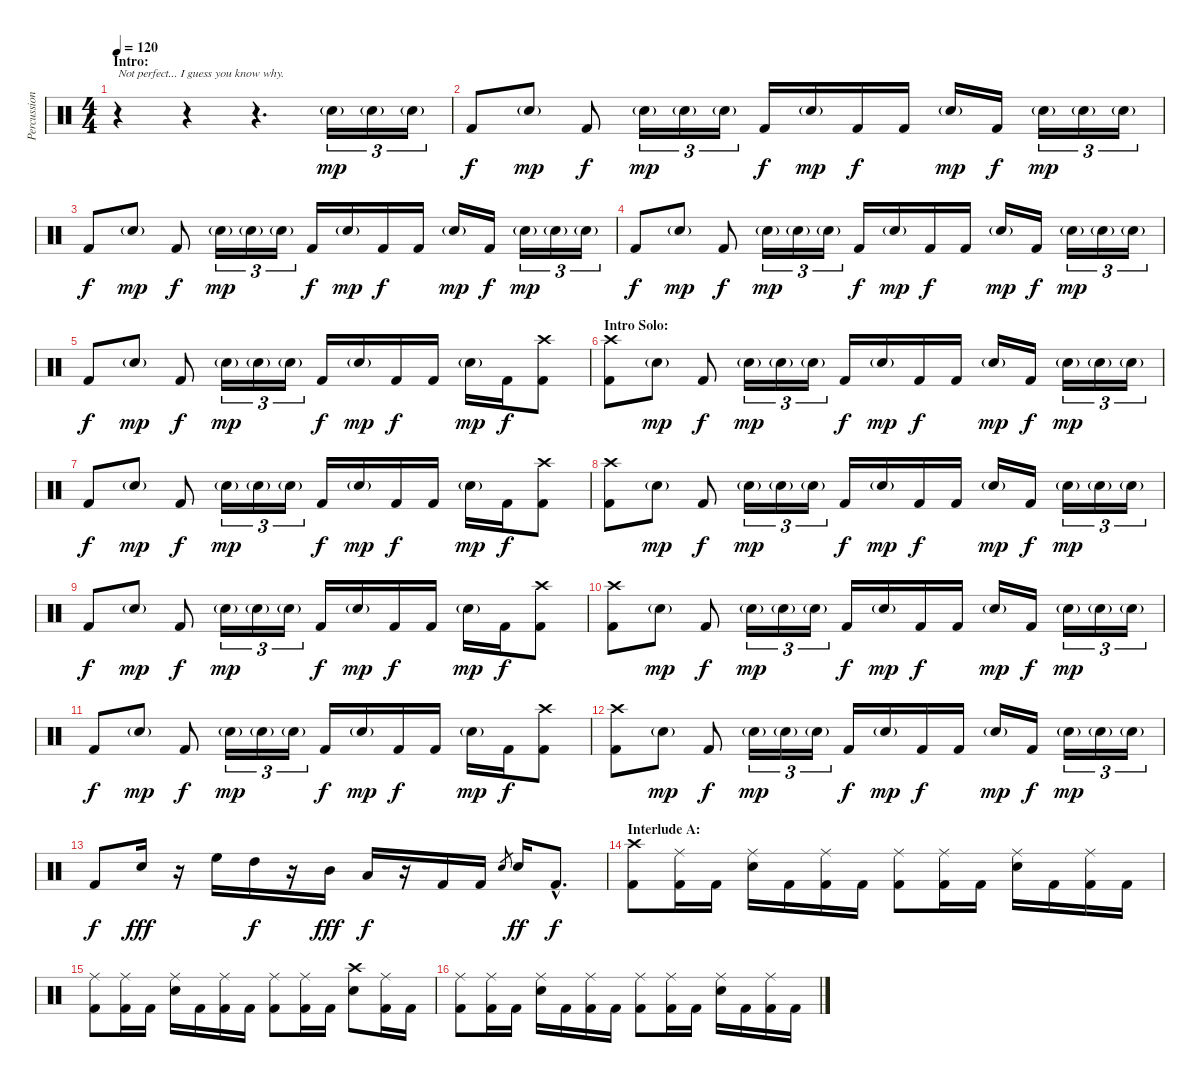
\track ("Percussion" "Percussion") {instrument percussion}
\staff {score}
\articulation defaults
\ts (4 4)
\section ("" "Intro:")
\tempo 120
\clef neutral
\ks c
r.4{txt "Not perfect... I guess you know why." dy mp} r.4 r.4{d} "Electric Snare (hit)"{g}.16{tu (3 2)} "Electric Snare (hit)"{g}.16{tu (3 2)} "Electric Snare (hit)"{g}.16{tu (3 2)} |
"Kick (hit) 2".8{dy f} "Electric Snare (hit)"{g}.8{dy mp} "Kick (hit) 2".8{dy f} "Electric Snare (hit)"{g}.16{tu (3 2) dy mp} "Electric Snare (hit)"{g}.16{tu (3 2)} "Electric Snare (hit)"{g}.16{tu (3 2)} "Kick (hit) 2".16{dy f} "Electric Snare (hit)"{g}.16{dy mp} "Kick (hit) 2".16{dy f} "Kick (hit) 2".16 "Electric Snare (hit)"{g}.16{dy mp} "Kick (hit) 2".16{dy f} "Electric Snare (hit)"{g}.16{tu (3 2) dy mp} "Electric Snare (hit)"{g}.16{tu (3 2)} "Electric Snare (hit)"{g}.16{tu (3 2)} |
"Kick (hit) 2".8{dy f} "Electric Snare (hit)"{g}.8{dy mp} "Kick (hit) 2".8{dy f} "Electric Snare (hit)"{g}.16{tu (3 2) dy mp} "Electric Snare (hit)"{g}.16{tu (3 2)} "Electric Snare (hit)"{g}.16{tu (3 2)} "Kick (hit) 2".16{dy f} "Electric Snare (hit)"{g}.16{dy mp} "Kick (hit) 2".16{dy f} "Kick (hit) 2".16 "Electric Snare (hit)"{g}.16{dy mp} "Kick (hit) 2".16{dy f} "Electric Snare (hit)"{g}.16{tu (3 2) dy mp} "Electric Snare (hit)"{g}.16{tu (3 2)} "Electric Snare (hit)"{g}.16{tu (3 2)} |
"Kick (hit) 2".8{dy f} "Electric Snare (hit)"{g}.8{dy mp} "Kick (hit) 2".8{dy f} "Electric Snare (hit)"{g}.16{tu (3 2) dy mp} "Electric Snare (hit)"{g}.16{tu (3 2)} "Electric Snare (hit)"{g}.16{tu (3 2)} "Kick (hit) 2".16{dy f} "Electric Snare (hit)"{g}.16{dy mp} "Kick (hit) 2".16{dy f} "Kick (hit) 2".16 "Electric Snare (hit)"{g}.16{dy mp} "Kick (hit) 2".16{dy f} "Electric Snare (hit)"{g}.16{tu (3 2) dy mp} "Electric Snare (hit)"{g}.16{tu (3 2)} "Electric Snare (hit)"{g}.16{tu (3 2)} |
"Kick (hit) 2".8{dy f} "Electric Snare (hit)"{g}.8{dy mp} "Kick (hit) 2".8{dy f} "Electric Snare (hit)"{g}.16{tu (3 2) dy mp} "Electric Snare (hit)"{g}.16{tu (3 2)} "Electric Snare (hit)"{g}.16{tu (3 2)} "Kick (hit) 2".16{dy f} "Electric Snare (hit)"{g}.16{dy mp} "Kick (hit) 2".16{dy f} "Kick (hit) 2".16 "Electric Snare (hit)"{g}.16{dy mp} "Kick (hit) 2".16{dy f} ("Crash high (hit)" "Kick (hit) 2").8 |
\section ("" "Intro Solo:")
("Crash high (hit)" "Kick (hit) 2").8 "Electric Snare (hit)"{g}.8{dy mp} "Kick (hit) 2".8{dy f} "Electric Snare (hit)"{g}.16{tu (3 2) dy mp} "Electric Snare (hit)"{g}.16{tu (3 2)} "Electric Snare (hit)"{g}.16{tu (3 2)} "Kick (hit) 2".16{dy f} "Electric Snare (hit)"{g}.16{dy mp} "Kick (hit) 2".16{dy f} "Kick (hit) 2".16 "Electric Snare (hit)"{g}.16{dy mp} "Kick (hit) 2".16{dy f} "Electric Snare (hit)"{g}.16{tu (3 2) dy mp} "Electric Snare (hit)"{g}.16{tu (3 2)} "Electric Snare (hit)"{g}.16{tu (3 2)} |
"Kick (hit) 2".8{dy f} "Electric Snare (hit)"{g}.8{dy mp} "Kick (hit) 2".8{dy f} "Electric Snare (hit)"{g}.16{tu (3 2) dy mp} "Electric Snare (hit)"{g}.16{tu (3 2)} "Electric Snare (hit)"{g}.16{tu (3 2)} "Kick (hit) 2".16{dy f} "Electric Snare (hit)"{g}.16{dy mp} "Kick (hit) 2".16{dy f} "Kick (hit) 2".16 "Electric Snare (hit)"{g}.16{dy mp} "Kick (hit) 2".16{dy f} ("Crash high (hit)" "Kick (hit) 2").8 |
("Crash high (hit)" "Kick (hit) 2").8 "Electric Snare (hit)"{g}.8{dy mp} "Kick (hit) 2".8{dy f} "Electric Snare (hit)"{g}.16{tu (3 2) dy mp} "Electric Snare (hit)"{g}.16{tu (3 2)} "Electric Snare (hit)"{g}.16{tu (3 2)} "Kick (hit) 2".16{dy f} "Electric Snare (hit)"{g}.16{dy mp} "Kick (hit) 2".16{dy f} "Kick (hit) 2".16 "Electric Snare (hit)"{g}.16{dy mp} "Kick (hit) 2".16{dy f} "Electric Snare (hit)"{g}.16{tu (3 2) dy mp} "Electric Snare (hit)"{g}.16{tu (3 2)} "Electric Snare (hit)"{g}.16{tu (3 2)} |
"Kick (hit) 2".8{dy f} "Electric Snare (hit)"{g}.8{dy mp} "Kick (hit) 2".8{dy f} "Electric Snare (hit)"{g}.16{tu (3 2) dy mp} "Electric Snare (hit)"{g}.16{tu (3 2)} "Electric Snare (hit)"{g}.16{tu (3 2)} "Kick (hit) 2".16{dy f} "Electric Snare (hit)"{g}.16{dy mp} "Kick (hit) 2".16{dy f} "Kick (hit) 2".16 "Electric Snare (hit)"{g}.16{dy mp} "Kick (hit) 2".16{dy f} ("Crash high (hit)" "Kick (hit) 2").8 |
("Crash high (hit)" "Kick (hit) 2").8 "Electric Snare (hit)"{g}.8{dy mp} "Kick (hit) 2".8{dy f} "Electric Snare (hit)"{g}.16{tu (3 2) dy mp} "Electric Snare (hit)"{g}.16{tu (3 2)} "Electric Snare (hit)"{g}.16{tu (3 2)} "Kick (hit) 2".16{dy f} "Electric Snare (hit)"{g}.16{dy mp} "Kick (hit) 2".16{dy f} "Kick (hit) 2".16 "Electric Snare (hit)"{g}.16{dy mp} "Kick (hit) 2".16{dy f} "Electric Snare (hit)"{g}.16{tu (3 2) dy mp} "Electric Snare (hit)"{g}.16{tu (3 2)} "Electric Snare (hit)"{g}.16{tu (3 2)} |
"Kick (hit) 2".8{dy f} "Electric Snare (hit)"{g}.8{dy mp} "Kick (hit) 2".8{dy f} "Electric Snare (hit)"{g}.16{tu (3 2) dy mp} "Electric Snare (hit)"{g}.16{tu (3 2)} "Electric Snare (hit)"{g}.16{tu (3 2)} "Kick (hit) 2".16{dy f} "Electric Snare (hit)"{g}.16{dy mp} "Kick (hit) 2".16{dy f} "Kick (hit) 2".16 "Electric Snare (hit)"{g}.16{dy mp} "Kick (hit) 2".16{dy f} ("Crash high (hit)" "Kick (hit) 2").8 |
("Crash high (hit)" "Kick (hit) 2").8 "Electric Snare (hit)"{g}.8{dy mp} "Kick (hit) 2".8{dy f} "Electric Snare (hit)"{g}.16{tu (3 2) dy mp} "Electric Snare (hit)"{g}.16{tu (3 2)} "Electric Snare (hit)"{g}.16{tu (3 2)} "Kick (hit) 2".16{dy f} "Electric Snare (hit)"{g}.16{dy mp} "Kick (hit) 2".16{dy f} "Kick (hit) 2".16 "Electric Snare (hit)"{g}.16{dy mp} "Kick (hit) 2".16{dy f} "Electric Snare (hit)"{g}.16{tu (3 2) dy mp} "Electric Snare (hit)"{g}.16{tu (3 2)} "Electric Snare (hit)"{g}.16{tu (3 2)} |
"Kick (hit) 2".8{dy f} "Electric Snare (hit)".16{dy fff} r.16 "High Floor Tom (hit)".16 "High Tom (hit)".16{dy f} r.16 "Mid Tom (hit)".16{dy fff} "Low Tom (hit)".16{dy f} r.16 "Kick (hit) 2".16 "Kick (hit) 2".16 "Electric Snare (hit)".8{gr} "Electric Snare (hit)".16{dy ff} "Kick (hit) 2"{hac}.8{d dy f} |
\section ("" "Interlude A:")
("Crash high (hit)" "Kick (hit) 2").8 ("Ride (middle)" "Kick (hit) 2").16 "Kick (hit) 2".16 ("Ride (middle)" "Electric Snare (hit)").16 "Kick (hit) 2".16 ("Ride (middle)" "Kick (hit) 2").16 "Kick (hit) 2".16 ("Ride (middle)" "Kick (hit) 2").8 ("Ride (middle)" "Kick (hit) 2").16 "Kick (hit) 2".16 ("Ride (middle)" "Electric Snare (hit)").16 "Kick (hit) 2".16 ("Ride (middle)" "Kick (hit) 2").16 "Kick (hit) 2".16 |
("Ride (middle)" "Kick (hit) 2").8 ("Ride (middle)" "Kick (hit) 2").16 "Kick (hit) 2".16 ("Ride (middle)" "Electric Snare (hit)").16 "Kick (hit) 2".16 ("Ride (middle)" "Kick (hit) 2").16 "Kick (hit) 2".16 ("Ride (middle)" "Kick (hit) 2").8 ("Ride (middle)" "Kick (hit) 2").16 "Kick (hit) 2".16 ("Crash high (hit)" "Electric Snare (hit)").8 ("Ride (middle)" "Kick (hit) 2").16 "Kick (hit) 2".16 |
("Ride (middle)" "Kick (hit) 2").8 ("Ride (middle)" "Kick (hit) 2").16 "Kick (hit) 2".16 ("Ride (middle)" "Electric Snare (hit)").16 "Kick (hit) 2".16 ("Ride (middle)" "Kick (hit) 2").16 "Kick (hit) 2".16 ("Ride (middle)" "Kick (hit) 2").8 ("Ride (middle)" "Kick (hit) 2").16 "Kick (hit) 2".16 ("Ride (middle)" "Electric Snare (hit)").16 "Kick (hit) 2".16 ("Ride (middle)" "Kick (hit) 2").16 "Kick (hit) 2".16
